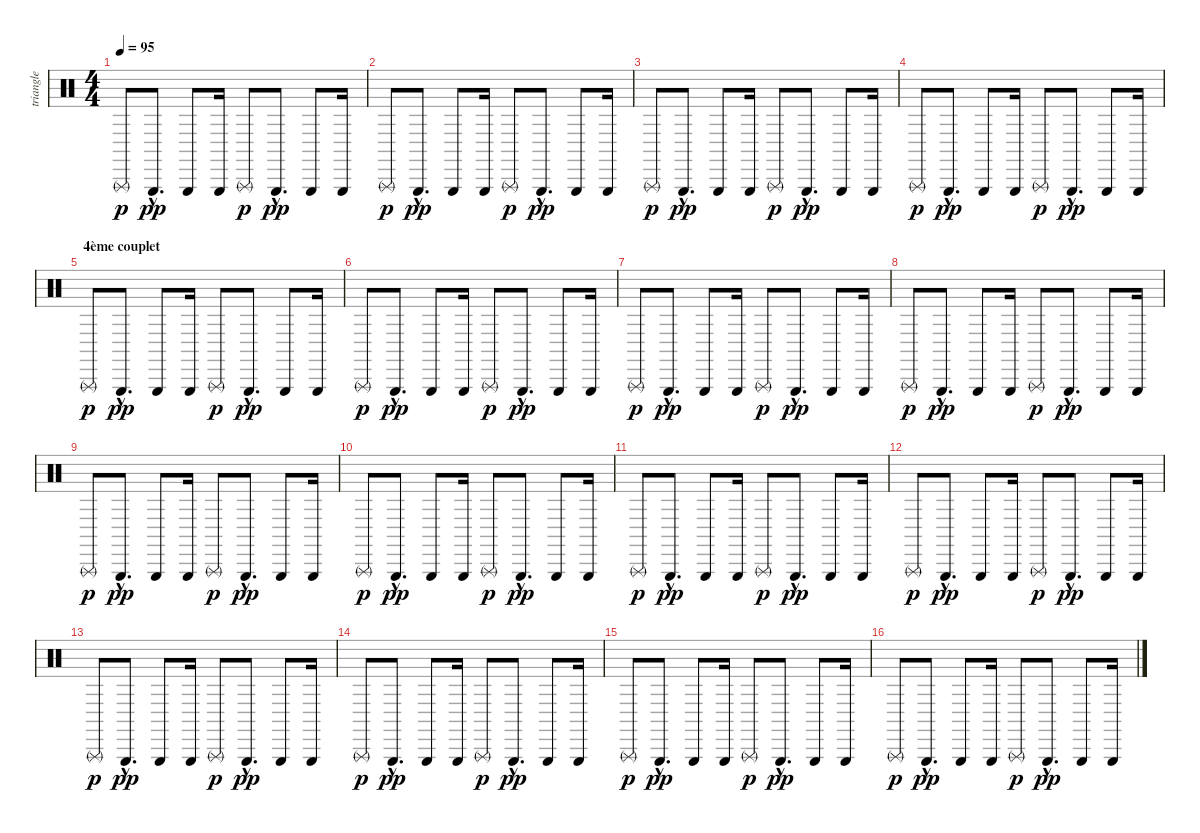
\track ("triangle" "triangle") {instrument percussion}
\staff {score}
\articulation defaults
\ts (4 4)
\tempo 95
\clef neutral
\ks c "Triangle (rnute)".8{dy p} "Triangle (hit)"{hac}.8{d dy pp} "Triangle (hit)".8 "Triangle (hit)".16 "Triangle (rnute)".8{dy p} "Triangle (hit)"{hac}.8{d dy pp} "Triangle (hit)".8 "Triangle (hit)".16
|
"Triangle (rnute)".8{dy p} "Triangle (hit)"{hac}.8{d dy pp} "Triangle (hit)".8 "Triangle (hit)".16 "Triangle (rnute)".8{dy p} "Triangle (hit)"{hac}.8{d dy pp} "Triangle (hit)".8 "Triangle (hit)".16 |
"Triangle (rnute)".8{dy p} "Triangle (hit)"{hac}.8{d dy pp} "Triangle (hit)".8 "Triangle (hit)".16 "Triangle (rnute)".8{dy p} "Triangle (hit)"{hac}.8{d dy pp} "Triangle (hit)".8 "Triangle (hit)".16 |
"Triangle (rnute)".8{dy p} "Triangle (hit)"{hac}.8{d dy pp} "Triangle (hit)".8 "Triangle (hit)".16 "Triangle (rnute)".8{dy p} "Triangle (hit)"{hac}.8{d dy pp} "Triangle (hit)".8 "Triangle (hit)".16 |
\section ("" "4ème couplet")
"Triangle (rnute)".8{dy p} "Triangle (hit)"{hac}.8{d dy pp} "Triangle (hit)".8 "Triangle (hit)".16 "Triangle (rnute)".8{dy p} "Triangle (hit)"{hac}.8{d dy pp} "Triangle (hit)".8 "Triangle (hit)".16 |
"Triangle (rnute)".8{dy p} "Triangle (hit)"{hac}.8{d dy pp} "Triangle (hit)".8 "Triangle (hit)".16 "Triangle (rnute)".8{dy p} "Triangle (hit)"{hac}.8{d dy pp} "Triangle (hit)".8 "Triangle (hit)".16 |
"Triangle (rnute)".8{dy p} "Triangle (hit)"{hac}.8{d dy pp} "Triangle (hit)".8 "Triangle (hit)".16 "Triangle (rnute)".8{dy p} "Triangle (hit)"{hac}.8{d dy pp} "Triangle (hit)".8 "Triangle (hit)".16 |
"Triangle (rnute)".8{dy p} "Triangle (hit)"{hac}.8{d dy pp} "Triangle (hit)".8 "Triangle (hit)".16 "Triangle (rnute)".8{dy p} "Triangle (hit)"{hac}.8{d dy pp} "Triangle (hit)".8 "Triangle (hit)".16 |
"Triangle (rnute)".8{dy p} "Triangle (hit)"{hac}.8{d dy pp} "Triangle (hit)".8 "Triangle (hit)".16 "Triangle (rnute)".8{dy p} "Triangle (hit)"{hac}.8{d dy pp} "Triangle (hit)".8 "Triangle (hit)".16 |
"Triangle (rnute)".8{dy p} "Triangle (hit)"{hac}.8{d dy pp} "Triangle (hit)".8 "Triangle (hit)".16 "Triangle (rnute)".8{dy p} "Triangle (hit)"{hac}.8{d dy pp} "Triangle (hit)".8 "Triangle (hit)".16 |
"Triangle (rnute)".8{dy p} "Triangle (hit)"{hac}.8{d dy pp} "Triangle (hit)".8 "Triangle (hit)".16 "Triangle (rnute)".8{dy p} "Triangle (hit)"{hac}.8{d dy pp} "Triangle (hit)".8 "Triangle (hit)".16 |
"Triangle (rnute)".8{dy p} "Triangle (hit)"{hac}.8{d dy pp} "Triangle (hit)".8 "Triangle (hit)".16 "Triangle (rnute)".8{dy p} "Triangle (hit)"{hac}.8{d dy pp} "Triangle (hit)".8 "Triangle (hit)".16 |
"Triangle (rnute)".8{dy p} "Triangle (hit)"{hac}.8{d dy pp} "Triangle (hit)".8 "Triangle (hit)".16 "Triangle (rnute)".8{dy p} "Triangle (hit)"{hac}.8{d dy pp} "Triangle (hit)".8 "Triangle (hit)".16 |
"Triangle (rnute)".8{dy p} "Triangle (hit)"{hac}.8{d dy pp} "Triangle (hit)".8 "Triangle (hit)".16 "Triangle (rnute)".8{dy p} "Triangle (hit)"{hac}.8{d dy pp} "Triangle (hit)".8 "Triangle (hit)".16 |
"Triangle (rnute)".8{dy p} "Triangle (hit)"{hac}.8{d dy pp} "Triangle (hit)".8 "Triangle (hit)".16 "Triangle (rnute)".8{dy p} "Triangle (hit)"{hac}.8{d dy pp} "Triangle (hit)".8 "Triangle (hit)".16 |
"Triangle (rnute)".8{dy p} "Triangle (hit)"{hac}.8{d dy pp} "Triangle (hit)".8 "Triangle (hit)".16 "Triangle (rnute)".8{dy p} "Triangle (hit)"{hac}.8{d dy pp} "Triangle (hit)".8 "Triangle (hit)".16
